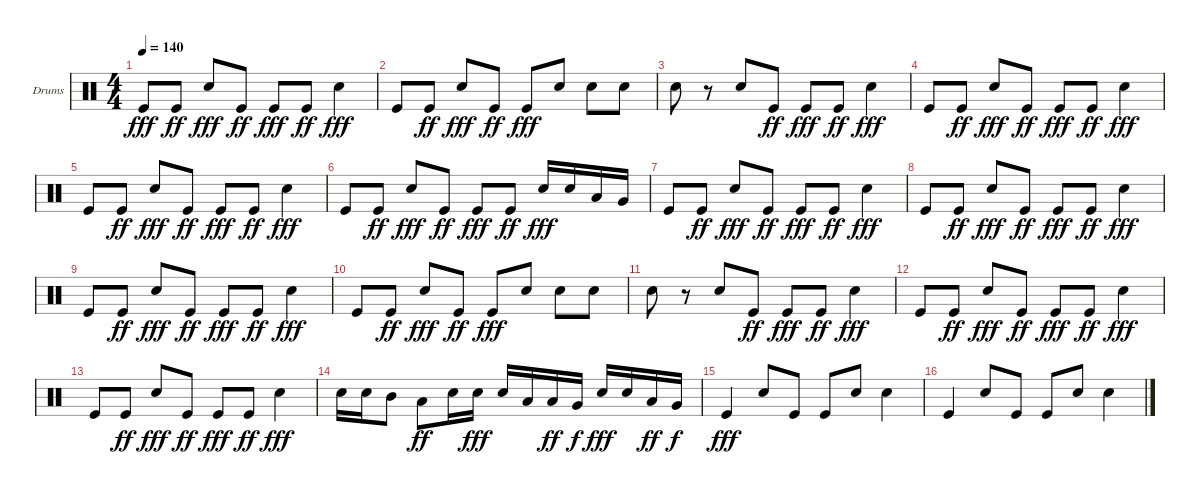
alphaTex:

\defaultSystemsLayout 4
\bracketExtendMode groupsimilarinstruments
\firstSystemTrackNameOrientation horizontal
\otherSystemsTrackNameOrientation horizontal
\track ("Helders" "Drums") {instrument percussion}
\staff {score}
\articulation defaults
\ts (4 4)
\tempo 140
\clef neutral
\ks c "Kick (hit)".8{dy fff} "Kick (hit)".8{dy ff} "Snare (hit) 2".8{dy fff} "Kick (hit)".8{dy ff} "Kick (hit)".8{dy fff} "Kick (hit)".8{dy ff} "Snare (hit) 2".4{dy fff}
|
"Kick (hit)".8 "Kick (hit)".8{dy ff} "Snare (hit) 2".8{dy fff} "Kick (hit)".8{dy ff} "Kick (hit)".8{dy fff} "Snare (hit) 2".8 "Snare (hit) 2".8 "Snare (hit) 2".8 |
"Snare (hit) 2".8 r.8 "Snare (hit) 2".8 "Kick (hit)".8{dy ff} "Kick (hit)".8{dy fff} "Kick (hit)".8{dy ff} "Snare (hit) 2".4{dy fff} |
"Kick (hit)".8 "Kick (hit)".8{dy ff} "Snare (hit) 2".8{dy fff} "Kick (hit)".8{dy ff} "Kick (hit)".8{dy fff} "Kick (hit)".8{dy ff} "Snare (hit) 2".4{dy fff} |
"Kick (hit)".8 "Kick (hit)".8{dy ff} "Snare (hit) 2".8{dy fff} "Kick (hit)".8{dy ff} "Kick (hit)".8{dy fff} "Kick (hit)".8{dy ff} "Snare (hit) 2".4{dy fff} |
"Kick (hit)".8 "Kick (hit)".8{dy ff} "Snare (hit) 2".8{dy fff} "Kick (hit)".8{dy ff} "Kick (hit)".8{dy fff} "Kick (hit)".8{dy ff} "Snare (hit) 2".16{dy fff} "Snare (hit) 2".16 "Low Tom (hit)".16 "Very Low Tom (hit)".16 |
"Kick (hit)".8 "Kick (hit)".8{dy ff} "Snare (hit) 2".8{dy fff} "Kick (hit)".8{dy ff} "Kick (hit)".8{dy fff} "Kick (hit)".8{dy ff} "Snare (hit) 2".4{dy fff} |
"Kick (hit)".8 "Kick (hit)".8{dy ff} "Snare (hit) 2".8{dy fff} "Kick (hit)".8{dy ff} "Kick (hit)".8{dy fff} "Kick (hit)".8{dy ff} "Snare (hit) 2".4{dy fff} |
"Kick (hit)".8 "Kick (hit)".8{dy ff} "Snare (hit) 2".8{dy fff} "Kick (hit)".8{dy ff} "Kick (hit)".8{dy fff} "Kick (hit)".8{dy ff} "Snare (hit) 2".4{dy fff} |
"Kick (hit)".8 "Kick (hit)".8{dy ff} "Snare (hit) 2".8{dy fff} "Kick (hit)".8{dy ff} "Kick (hit)".8{dy fff} "Snare (hit) 2".8 "Snare (hit) 2".8 "Snare (hit) 2".8 |
"Snare (hit) 2".8 r.8 "Snare (hit) 2".8 "Kick (hit)".8{dy ff} "Kick (hit)".8{dy fff} "Kick (hit)".8{dy ff} "Snare (hit) 2".4{dy fff} |
"Kick (hit)".8 "Kick (hit)".8{dy ff} "Snare (hit) 2".8{dy fff} "Kick (hit)".8{dy ff} "Kick (hit)".8{dy fff} "Kick (hit)".8{dy ff} "Snare (hit) 2".4{dy fff} |
"Kick (hit)".8 "Kick (hit)".8{dy ff} "Snare (hit) 2".8{dy fff} "Kick (hit)".8{dy ff} "Kick (hit)".8{dy fff} "Kick (hit)".8{dy ff} "Snare (hit) 2".4{dy fff} |
"Snare (hit) 2".16 "Snare (hit) 2".16 "Mid Tom (hit)".8 "Low Tom (hit)".8{dy ff} "Snare (hit) 2".16 "Snare (hit) 2".16{dy fff} "Snare (hit) 2".16 "Low Tom (hit)".16 "Low Tom (hit)".16{dy ff} "Very Low Tom (hit)".16{dy f} "Snare (hit) 2".16{dy fff} "Snare (hit) 2".16 "Low Tom (hit)".16{dy ff} "Very Low Tom (hit)".16{dy f} |
"Kick (hit)".4{dy fff} "Snare (hit) 2".8 "Kick (hit)".8 "Kick (hit)".8 "Snare (hit) 2".8 "Snare (hit) 2".4 |
"Kick (hit)".4 "Snare (hit) 2".8 "Kick (hit)".8 "Kick (hit)".8 "Snare (hit) 2".8 "Snare (hit) 2".4
